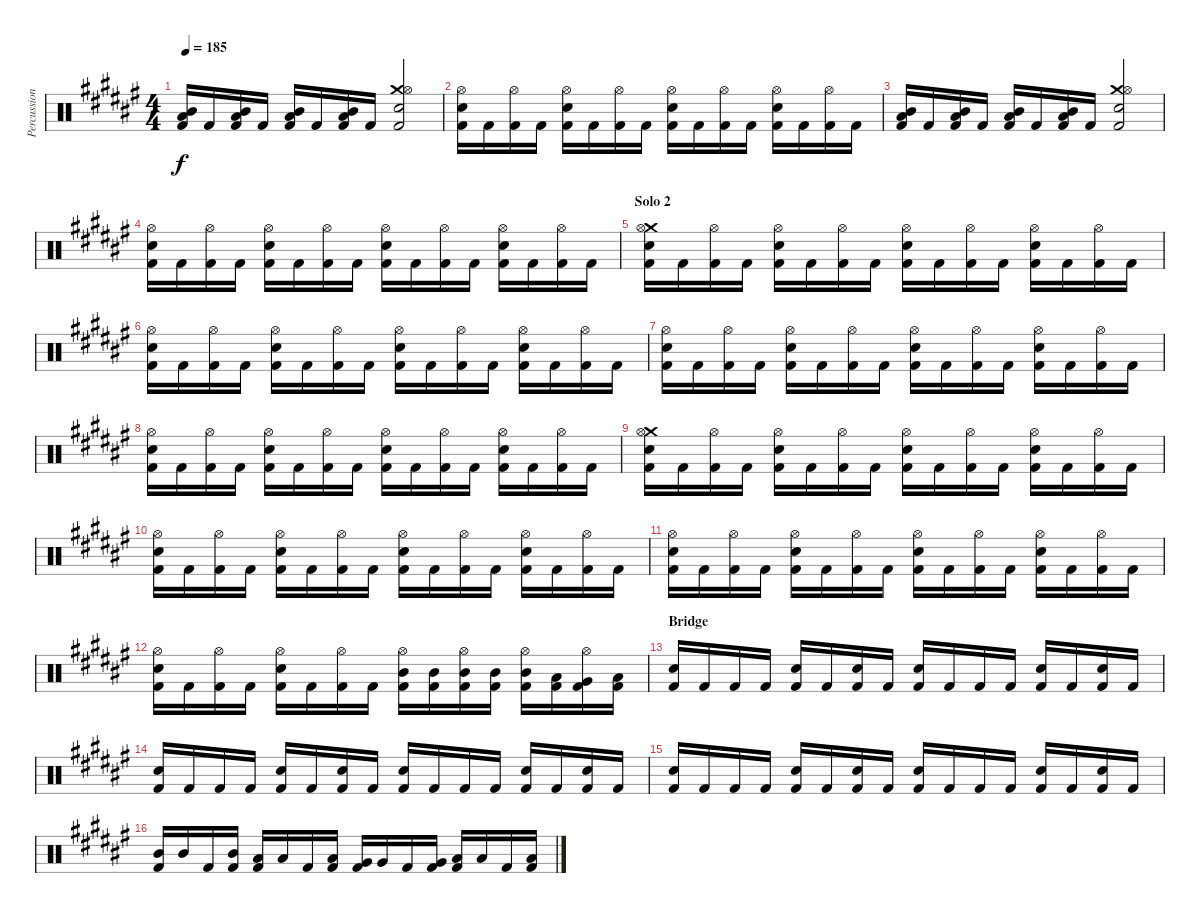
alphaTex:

\track ("Percussion" "Percussion") {instrument percussion}
\staff {score}
\articulation defaults
\ts (4 4)
\tempo 185
\clef neutral
\ks d#minor
("Mid Tom (hit)" "Low Tom (hit)" "Kick (hit) 2").16{dy f} "Kick (hit) 2".16 ("Mid Tom (hit)" "Low Tom (hit)" "Kick (hit) 2").16 "Kick (hit) 2".16 ("Mid Tom (hit)" "Low Tom (hit)" "Kick (hit) 2").16 "Kick (hit) 2".16 ("Mid Tom (hit)" "Low Tom (hit)" "Kick (hit) 2").16 "Kick (hit) 2".16 ("Crash medium (hit)" "Hi-Hat (open)" "Electric Snare (hit)" "Kick (hit) 2").2 |
("Hi-Hat (open)" "Electric Snare (hit)" "Kick (hit) 2").16 "Kick (hit) 2".16 ("Hi-Hat (open)" "Kick (hit) 2").16 "Kick (hit) 2".16 ("Hi-Hat (open)" "Electric Snare (hit)" "Kick (hit) 2").16 "Kick (hit) 2".16 ("Hi-Hat (open)" "Kick (hit) 2").16 "Kick (hit) 2".16 ("Hi-Hat (open)" "Electric Snare (hit)" "Kick (hit) 2").16 "Kick (hit) 2".16 ("Hi-Hat (open)" "Kick (hit) 2").16 "Kick (hit) 2".16 ("Hi-Hat (open)" "Electric Snare (hit)" "Kick (hit) 2").16 "Kick (hit) 2".16 ("Hi-Hat (open)" "Kick (hit) 2").16 "Kick (hit) 2".16 |
("Mid Tom (hit)" "Low Tom (hit)" "Kick (hit) 2").16 "Kick (hit) 2".16 ("Mid Tom (hit)" "Low Tom (hit)" "Kick (hit) 2").16 "Kick (hit) 2".16 ("Mid Tom (hit)" "Low Tom (hit)" "Kick (hit) 2").16 "Kick (hit) 2".16 ("Mid Tom (hit)" "Low Tom (hit)" "Kick (hit) 2").16 "Kick (hit) 2".16 ("Crash medium (hit)" "Hi-Hat (open)" "Electric Snare (hit)" "Kick (hit) 2").2 |
("Hi-Hat (open)" "Electric Snare (hit)" "Kick (hit) 2").16 "Kick (hit) 2".16 ("Hi-Hat (open)" "Kick (hit) 2").16 "Kick (hit) 2".16 ("Hi-Hat (open)" "Electric Snare (hit)" "Kick (hit) 2").16 "Kick (hit) 2".16 ("Hi-Hat (open)" "Kick (hit) 2").16 "Kick (hit) 2".16 ("Hi-Hat (open)" "Electric Snare (hit)" "Kick (hit) 2").16 "Kick (hit) 2".16 ("Hi-Hat (open)" "Kick (hit) 2").16 "Kick (hit) 2".16 ("Hi-Hat (open)" "Electric Snare (hit)" "Kick (hit) 2").16 "Kick (hit) 2".16 ("Hi-Hat (open)" "Kick (hit) 2").16 "Kick (hit) 2".16 |
\section ("" "Solo 2")
("Crash medium (hit)" "Hi-Hat (open)" "Electric Snare (hit)" "Kick (hit) 2").16 "Kick (hit) 2".16 ("Hi-Hat (open)" "Kick (hit) 2").16 "Kick (hit) 2".16 ("Hi-Hat (open)" "Electric Snare (hit)" "Kick (hit) 2").16 "Kick (hit) 2".16 ("Hi-Hat (open)" "Kick (hit) 2").16 "Kick (hit) 2".16 ("Hi-Hat (open)" "Electric Snare (hit)" "Kick (hit) 2").16 "Kick (hit) 2".16 ("Hi-Hat (open)" "Kick (hit) 2").16 "Kick (hit) 2".16 ("Hi-Hat (open)" "Electric Snare (hit)" "Kick (hit) 2").16 "Kick (hit) 2".16 ("Hi-Hat (open)" "Kick (hit) 2").16 "Kick (hit) 2".16 |
("Hi-Hat (open)" "Electric Snare (hit)" "Kick (hit) 2").16 "Kick (hit) 2".16 ("Hi-Hat (open)" "Kick (hit) 2").16 "Kick (hit) 2".16 ("Hi-Hat (open)" "Electric Snare (hit)" "Kick (hit) 2").16 "Kick (hit) 2".16 ("Hi-Hat (open)" "Kick (hit) 2").16 "Kick (hit) 2".16 ("Hi-Hat (open)" "Electric Snare (hit)" "Kick (hit) 2").16 "Kick (hit) 2".16 ("Hi-Hat (open)" "Kick (hit) 2").16 "Kick (hit) 2".16 ("Hi-Hat (open)" "Electric Snare (hit)" "Kick (hit) 2").16 "Kick (hit) 2".16 ("Hi-Hat (open)" "Kick (hit) 2").16 "Kick (hit) 2".16 |
("Hi-Hat (open)" "Electric Snare (hit)" "Kick (hit) 2").16 "Kick (hit) 2".16 ("Hi-Hat (open)" "Kick (hit) 2").16 "Kick (hit) 2".16 ("Hi-Hat (open)" "Electric Snare (hit)" "Kick (hit) 2").16 "Kick (hit) 2".16 ("Hi-Hat (open)" "Kick (hit) 2").16 "Kick (hit) 2".16 ("Hi-Hat (open)" "Electric Snare (hit)" "Kick (hit) 2").16 "Kick (hit) 2".16 ("Hi-Hat (open)" "Kick (hit) 2").16 "Kick (hit) 2".16 ("Hi-Hat (open)" "Electric Snare (hit)" "Kick (hit) 2").16 "Kick (hit) 2".16 ("Hi-Hat (open)" "Kick (hit) 2").16 "Kick (hit) 2".16 |
("Hi-Hat (open)" "Electric Snare (hit)" "Kick (hit) 2").16 "Kick (hit) 2".16 ("Hi-Hat (open)" "Kick (hit) 2").16 "Kick (hit) 2".16 ("Hi-Hat (open)" "Electric Snare (hit)" "Kick (hit) 2").16 "Kick (hit) 2".16 ("Hi-Hat (open)" "Kick (hit) 2").16 "Kick (hit) 2".16 ("Hi-Hat (open)" "Electric Snare (hit)" "Kick (hit) 2").16 "Kick (hit) 2".16 ("Hi-Hat (open)" "Kick (hit) 2").16 "Kick (hit) 2".16 ("Hi-Hat (open)" "Electric Snare (hit)" "Kick (hit) 2").16 "Kick (hit) 2".16 ("Hi-Hat (open)" "Kick (hit) 2").16 "Kick (hit) 2".16 |
("Crash medium (hit)" "Hi-Hat (open)" "Electric Snare (hit)" "Kick (hit) 2").16 "Kick (hit) 2".16 ("Hi-Hat (open)" "Kick (hit) 2").16 "Kick (hit) 2".16 ("Hi-Hat (open)" "Electric Snare (hit)" "Kick (hit) 2").16 "Kick (hit) 2".16 ("Hi-Hat (open)" "Kick (hit) 2").16 "Kick (hit) 2".16 ("Hi-Hat (open)" "Electric Snare (hit)" "Kick (hit) 2").16 "Kick (hit) 2".16 ("Hi-Hat (open)" "Kick (hit) 2").16 "Kick (hit) 2".16 ("Hi-Hat (open)" "Electric Snare (hit)" "Kick (hit) 2").16 "Kick (hit) 2".16 ("Hi-Hat (open)" "Kick (hit) 2").16 "Kick (hit) 2".16 |
("Hi-Hat (open)" "Electric Snare (hit)" "Kick (hit) 2").16 "Kick (hit) 2".16 ("Hi-Hat (open)" "Kick (hit) 2").16 "Kick (hit) 2".16 ("Hi-Hat (open)" "Electric Snare (hit)" "Kick (hit) 2").16 "Kick (hit) 2".16 ("Hi-Hat (open)" "Kick (hit) 2").16 "Kick (hit) 2".16 ("Hi-Hat (open)" "Electric Snare (hit)" "Kick (hit) 2").16 "Kick (hit) 2".16 ("Hi-Hat (open)" "Kick (hit) 2").16 "Kick (hit) 2".16 ("Hi-Hat (open)" "Electric Snare (hit)" "Kick (hit) 2").16 "Kick (hit) 2".16 ("Hi-Hat (open)" "Kick (hit) 2").16 "Kick (hit) 2".16 |
("Hi-Hat (open)" "Electric Snare (hit)" "Kick (hit) 2").16 "Kick (hit) 2".16 ("Hi-Hat (open)" "Kick (hit) 2").16 "Kick (hit) 2".16 ("Hi-Hat (open)" "Electric Snare (hit)" "Kick (hit) 2").16 "Kick (hit) 2".16 ("Hi-Hat (open)" "Kick (hit) 2").16 "Kick (hit) 2".16 ("Hi-Hat (open)" "Electric Snare (hit)" "Kick (hit) 2").16 "Kick (hit) 2".16 ("Hi-Hat (open)" "Kick (hit) 2").16 "Kick (hit) 2".16 ("Hi-Hat (open)" "Electric Snare (hit)" "Kick (hit) 2").16 "Kick (hit) 2".16 ("Hi-Hat (open)" "Kick (hit) 2").16 "Kick (hit) 2".16 |
("Hi-Hat (open)" "Electric Snare (hit)" "Kick (hit) 2").16 "Kick (hit) 2".16 ("Hi-Hat (open)" "Kick (hit) 2").16 "Kick (hit) 2".16 ("Hi-Hat (open)" "Electric Snare (hit)" "Kick (hit) 2").16 "Kick (hit) 2".16 ("Hi-Hat (open)" "Kick (hit) 2").16 "Kick (hit) 2".16 ("Hi-Hat (open)" "Mid Tom (hit)" "Kick (hit) 2").16 ("Mid Tom (hit)" "Kick (hit) 2").16 ("Hi-Hat (open)" "Mid Tom (hit)" "Kick (hit) 2").16 ("Mid Tom (hit)" "Kick (hit) 2").16 ("Hi-Hat (open)" "Mid Tom (hit)" "Kick (hit) 2").16 ("Low Tom (hit)" "Kick (hit) 2").16 ("Hi-Hat (open)" "Very Low Tom (hit)" "Kick (hit) 2").16 ("Low Floor Tom (hit)" "Kick (hit) 2").16 |
\section ("" "Bridge")
("Electric Snare (hit)" "Kick (hit) 2").16 "Kick (hit) 2".16 "Kick (hit) 2".16 "Kick (hit) 2".16 ("Electric Snare (hit)" "Kick (hit) 2").16 "Kick (hit) 2".16 ("Electric Snare (hit)" "Kick (hit) 2").16 "Kick (hit) 2".16 ("Electric Snare (hit)" "Kick (hit) 2").16 "Kick (hit) 2".16 "Kick (hit) 2".16 "Kick (hit) 2".16 ("Electric Snare (hit)" "Kick (hit) 2").16 "Kick (hit) 2".16 ("Electric Snare (hit)" "Kick (hit) 2").16 "Kick (hit) 2".16 |
("Electric Snare (hit)" "Kick (hit) 2").16 "Kick (hit) 2".16 "Kick (hit) 2".16 "Kick (hit) 2".16 ("Electric Snare (hit)" "Kick (hit) 2").16 "Kick (hit) 2".16 ("Electric Snare (hit)" "Kick (hit) 2").16 "Kick (hit) 2".16 ("Electric Snare (hit)" "Kick (hit) 2").16 "Kick (hit) 2".16 "Kick (hit) 2".16 "Kick (hit) 2".16 ("Electric Snare (hit)" "Kick (hit) 2").16 "Kick (hit) 2".16 ("Electric Snare (hit)" "Kick (hit) 2").16 "Kick (hit) 2".16 |
("Electric Snare (hit)" "Kick (hit) 2").16 "Kick (hit) 2".16 "Kick (hit) 2".16 "Kick (hit) 2".16 ("Electric Snare (hit)" "Kick (hit) 2").16 "Kick (hit) 2".16 ("Electric Snare (hit)" "Kick (hit) 2").16 "Kick (hit) 2".16 ("Electric Snare (hit)" "Kick (hit) 2").16 "Kick (hit) 2".16 "Kick (hit) 2".16 "Kick (hit) 2".16 ("Electric Snare (hit)" "Kick (hit) 2").16 "Kick (hit) 2".16 ("Electric Snare (hit)" "Kick (hit) 2").16 "Kick (hit) 2".16 |
("Mid Tom (hit)" "Kick (hit) 2").16 "Mid Tom (hit)".16 "Kick (hit) 2".16 ("Mid Tom (hit)" "Kick (hit) 2").16 ("Low Tom (hit)" "Kick (hit) 2").16 "Low Tom (hit)".16 "Kick (hit) 2".16 ("Low Tom (hit)" "Kick (hit) 2").16 ("Very Low Tom (hit)" "Kick (hit) 2").16 "Very Low Tom (hit)".16 "Kick (hit) 2".16 ("Very Low Tom (hit)" "Kick (hit) 2").16 ("Low Floor Tom (hit)" "Kick (hit) 2").16 "Low Floor Tom (hit)".16 "Kick (hit) 2".16 ("Low Floor Tom (hit)" "Kick (hit) 2").16
